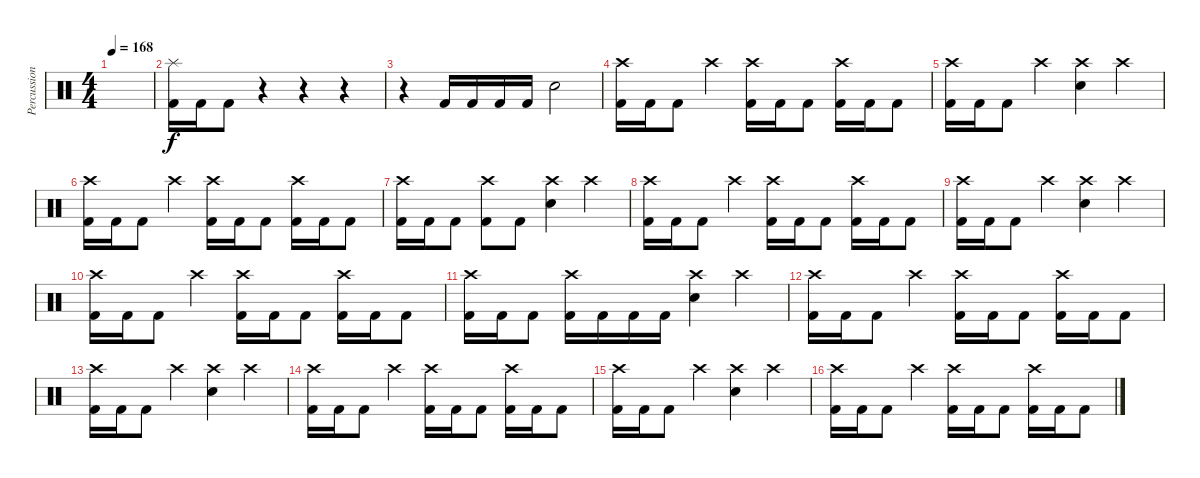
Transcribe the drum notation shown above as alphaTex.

\track ("Percussion" "Percussion") {instrument percussion}
\staff {score}
\articulation defaults
\ts (4 4)
\tempo 168
\clef neutral
\ks c
|
("Splash (hit)" "Kick (hit) 2").16 "Kick (hit) 2".16 "Kick (hit) 2".8 r.4 r.4 r.4 |
r.4 "Kick (hit) 2".16 "Kick (hit) 2".16 "Kick (hit) 2".16 "Kick (hit) 2".16 "Electric Snare (hit)".2 |
("Crash high (hit)" "Kick (hit) 2").16 "Kick (hit) 2".16 "Kick (hit) 2".8 "Crash high (hit)".4 ("Crash high (hit)" "Kick (hit) 2").16 "Kick (hit) 2".16 "Kick (hit) 2".8 ("Crash high (hit)" "Kick (hit) 2").16 "Kick (hit) 2".16 "Kick (hit) 2".8 |
("Crash high (hit)" "Kick (hit) 2").16 "Kick (hit) 2".16 "Kick (hit) 2".8 "Crash high (hit)".4 ("Crash high (hit)" "Electric Snare (hit)").4 "Crash high (hit)".4 |
("Crash high (hit)" "Kick (hit) 2").16 "Kick (hit) 2".16 "Kick (hit) 2".8 "Crash high (hit)".4 ("Crash high (hit)" "Kick (hit) 2").16 "Kick (hit) 2".16 "Kick (hit) 2".8 ("Crash high (hit)" "Kick (hit) 2").16 "Kick (hit) 2".16 "Kick (hit) 2".8 |
("Crash high (hit)" "Kick (hit) 2").16 "Kick (hit) 2".16 "Kick (hit) 2".8 ("Crash high (hit)" "Kick (hit) 2").8 "Kick (hit) 2".8 ("Crash high (hit)" "Electric Snare (hit)").4 "Crash high (hit)".4 |
("Crash high (hit)" "Kick (hit) 2").16 "Kick (hit) 2".16 "Kick (hit) 2".8 "Crash high (hit)".4 ("Crash high (hit)" "Kick (hit) 2").16 "Kick (hit) 2".16 "Kick (hit) 2".8 ("Crash high (hit)" "Kick (hit) 2").16 "Kick (hit) 2".16 "Kick (hit) 2".8 |
("Crash high (hit)" "Kick (hit) 2").16 "Kick (hit) 2".16 "Kick (hit) 2".8 "Crash high (hit)".4 ("Crash high (hit)" "Electric Snare (hit)").4 "Crash high (hit)".4 |
("Crash high (hit)" "Kick (hit) 2").16 "Kick (hit) 2".16 "Kick (hit) 2".8 "Crash high (hit)".4 ("Crash high (hit)" "Kick (hit) 2").16 "Kick (hit) 2".16 "Kick (hit) 2".8 ("Crash high (hit)" "Kick (hit) 2").16 "Kick (hit) 2".16 "Kick (hit) 2".8 |
("Crash high (hit)" "Kick (hit) 2").16 "Kick (hit) 2".16 "Kick (hit) 2".8 ("Crash high (hit)" "Kick (hit) 2").16 "Kick (hit) 2".16 "Kick (hit) 2".16 "Kick (hit) 2".16 ("Crash high (hit)" "Electric Snare (hit)").4 "Crash high (hit)".4 |
("Crash high (hit)" "Kick (hit) 2").16 "Kick (hit) 2".16 "Kick (hit) 2".8 "Crash high (hit)".4 ("Crash high (hit)" "Kick (hit) 2").16 "Kick (hit) 2".16 "Kick (hit) 2".8 ("Crash high (hit)" "Kick (hit) 2").16 "Kick (hit) 2".16 "Kick (hit) 2".8 |
("Crash high (hit)" "Kick (hit) 2").16 "Kick (hit) 2".16 "Kick (hit) 2".8 "Crash high (hit)".4 ("Crash high (hit)" "Electric Snare (hit)").4 "Crash high (hit)".4 |
("Crash high (hit)" "Kick (hit) 2").16 "Kick (hit) 2".16 "Kick (hit) 2".8 "Crash high (hit)".4 ("Crash high (hit)" "Kick (hit) 2").16 "Kick (hit) 2".16 "Kick (hit) 2".8 ("Crash high (hit)" "Kick (hit) 2").16 "Kick (hit) 2".16 "Kick (hit) 2".8 |
("Crash high (hit)" "Kick (hit) 2").16 "Kick (hit) 2".16 "Kick (hit) 2".8 "Crash high (hit)".4 ("Crash high (hit)" "Electric Snare (hit)").4 "Crash high (hit)".4 |
("Crash high (hit)" "Kick (hit) 2").16 "Kick (hit) 2".16 "Kick (hit) 2".8 "Crash high (hit)".4 ("Crash high (hit)" "Kick (hit) 2").16 "Kick (hit) 2".16 "Kick (hit) 2".8 ("Crash high (hit)" "Kick (hit) 2").16 "Kick (hit) 2".16 "Kick (hit) 2".8
